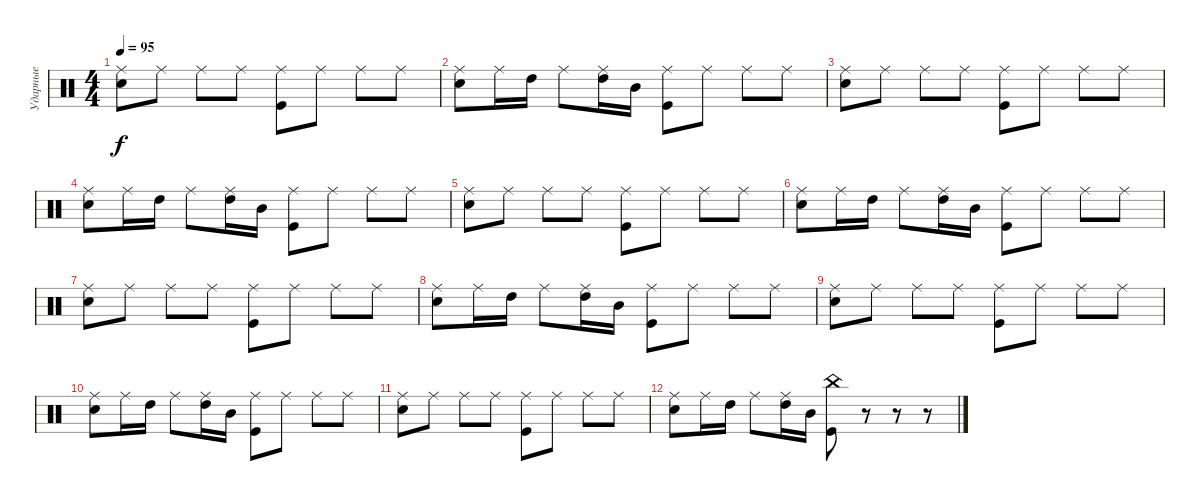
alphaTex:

\track ("Ударные" "Ударные") {instrument percussion}
\staff {score}
\articulation defaults
\ts (4 4)
\tempo 95
\clef neutral
\ks c
("Ride (middle)" "Electric Snare (hit)").8{dy f} "Ride (middle)".8 "Ride (middle)".8 "Ride (middle)".8 ("Ride (middle)" "Kick (hit)").8 "Ride (middle)".8 "Ride (middle)".8 "Ride (middle)".8 |
("Ride (middle)" "Electric Snare (hit)").8 "Ride (middle)".16 "High Tom (hit)".16 "Ride (middle)".8 ("Ride (middle)" "High Tom (hit)").16 "Mid Tom (hit)".16 ("Ride (middle)" "Kick (hit)").8 "Ride (middle)".8 "Ride (middle)".8 "Ride (middle)".8 |
("Ride (middle)" "Electric Snare (hit)").8 "Ride (middle)".8 "Ride (middle)".8 "Ride (middle)".8 ("Ride (middle)" "Kick (hit)").8 "Ride (middle)".8 "Ride (middle)".8 "Ride (middle)".8 |
("Ride (middle)" "Electric Snare (hit)").8 "Ride (middle)".16 "High Tom (hit)".16 "Ride (middle)".8 ("Ride (middle)" "High Tom (hit)").16 "Mid Tom (hit)".16 ("Ride (middle)" "Kick (hit)").8 "Ride (middle)".8 "Ride (middle)".8 "Ride (middle)".8 |
("Ride (middle)" "Electric Snare (hit)").8 "Ride (middle)".8 "Ride (middle)".8 "Ride (middle)".8 ("Ride (middle)" "Kick (hit)").8 "Ride (middle)".8 "Ride (middle)".8 "Ride (middle)".8 |
("Ride (middle)" "Electric Snare (hit)").8 "Ride (middle)".16 "High Tom (hit)".16 "Ride (middle)".8 ("Ride (middle)" "High Tom (hit)").16 "Mid Tom (hit)".16 ("Ride (middle)" "Kick (hit)").8 "Ride (middle)".8 "Ride (middle)".8 "Ride (middle)".8 |
("Ride (middle)" "Electric Snare (hit)").8 "Ride (middle)".8 "Ride (middle)".8 "Ride (middle)".8 ("Ride (middle)" "Kick (hit)").8 "Ride (middle)".8 "Ride (middle)".8 "Ride (middle)".8 |
("Ride (middle)" "Electric Snare (hit)").8 "Ride (middle)".16 "High Tom (hit)".16 "Ride (middle)".8 ("Ride (middle)" "High Tom (hit)").16 "Mid Tom (hit)".16 ("Ride (middle)" "Kick (hit)").8 "Ride (middle)".8 "Ride (middle)".8 "Ride (middle)".8 |
("Ride (middle)" "Electric Snare (hit)").8 "Ride (middle)".8 "Ride (middle)".8 "Ride (middle)".8 ("Ride (middle)" "Kick (hit)").8 "Ride (middle)".8 "Ride (middle)".8 "Ride (middle)".8 |
("Ride (middle)" "Electric Snare (hit)").8 "Ride (middle)".16 "High Tom (hit)".16 "Ride (middle)".8 ("Ride (middle)" "High Tom (hit)").16 "Mid Tom (hit)".16 ("Ride (middle)" "Kick (hit)").8 "Ride (middle)".8 "Ride (middle)".8 "Ride (middle)".8 |
("Ride (middle)" "Electric Snare (hit)").8 "Ride (middle)".8 "Ride (middle)".8 "Ride (middle)".8 ("Ride (middle)" "Kick (hit)").8 "Ride (middle)".8 "Ride (middle)".8 "Ride (middle)".8 |
("Ride (middle)" "Electric Snare (hit)").8 "Ride (middle)".16 "High Tom (hit)".16 "Ride (middle)".8 ("Ride (middle)" "High Tom (hit)").16 "Mid Tom (hit)".16 ("China (hit)" "Kick (hit)").8 r.8 r.8 r.8
